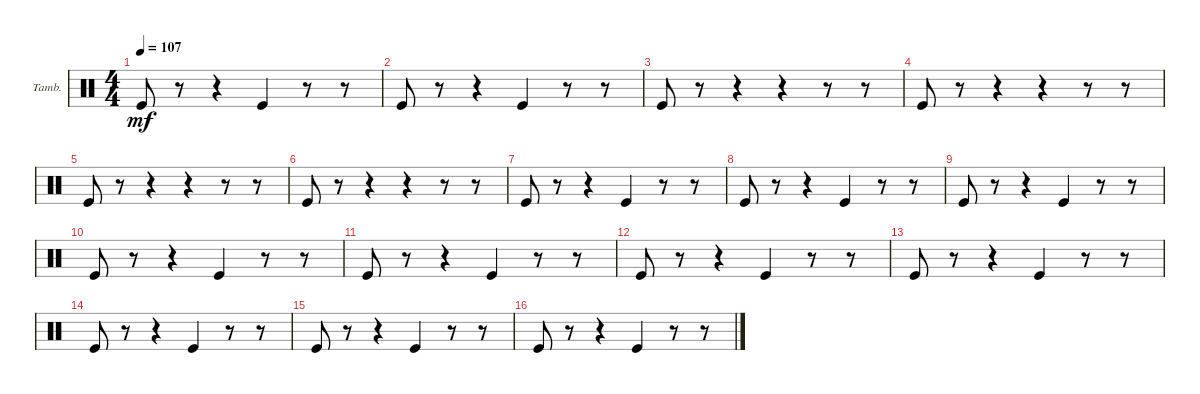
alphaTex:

\defaultSystemsLayout 4
\bracketExtendMode groupsimilarinstruments
\firstSystemTrackNameOrientation horizontal
\otherSystemsTrackNameOrientation horizontal
\track ("Tambourine" "Tamb.") {instrument percussion}
\staff {score}
\articulation defaults
\ts (4 4)
\tempo 107
\clef neutral
\ks c "Kick (hit)".8{dy mf}
r.8 r.4 "Kick (hit)".4 r.8 r.8 |
"Kick (hit)".8 r.8 r.4 "Kick (hit)".4 r.8 r.8 |
"Kick (hit)".8 r.8 r.4 r.4 r.8 r.8 |
"Kick (hit)".8 r.8 r.4 r.4 r.8 r.8 |
"Kick (hit)".8 r.8 r.4 r.4 r.8 r.8 |
"Kick (hit)".8 r.8 r.4 r.4 r.8 r.8 |
"Kick (hit)".8 r.8 r.4 "Kick (hit)".4 r.8 r.8 |
"Kick (hit)".8 r.8 r.4 "Kick (hit)".4 r.8 r.8 |
"Kick (hit)".8 r.8 r.4 "Kick (hit)".4 r.8 r.8 |
"Kick (hit)".8 r.8 r.4 "Kick (hit)".4 r.8 r.8 |
"Kick (hit)".8 r.8 r.4 "Kick (hit)".4 r.8 r.8 |
"Kick (hit)".8 r.8 r.4 "Kick (hit)".4 r.8 r.8 |
"Kick (hit)".8 r.8 r.4 "Kick (hit)".4 r.8 r.8 |
"Kick (hit)".8 r.8 r.4 "Kick (hit)".4 r.8 r.8 |
"Kick (hit)".8 r.8 r.4 "Kick (hit)".4 r.8 r.8 |
"Kick (hit)".8 r.8 r.4 "Kick (hit)".4 r.8 r.8
